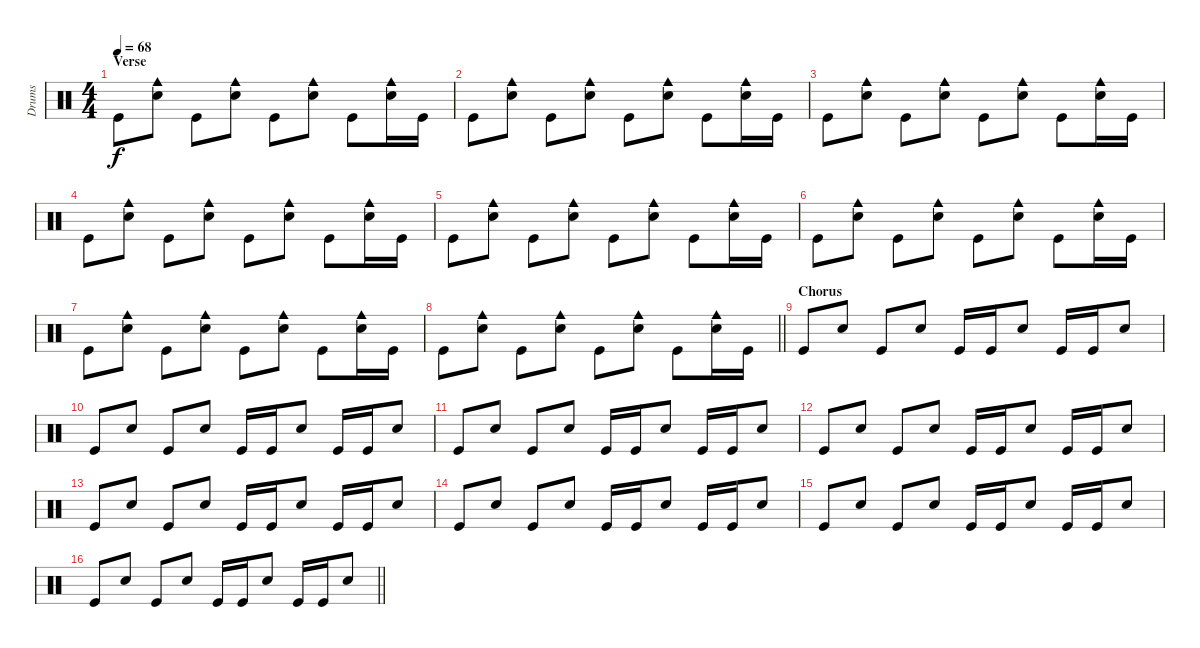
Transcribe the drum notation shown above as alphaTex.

\track ("Drums" "Drums") {instrument percussion}
\staff {score}
\articulation defaults
\ts (4 4)
\section ("" "Verse")
\tempo 68
\clef neutral
\ks c "Kick (hit)".8{dy f}
("Cowbell medium (hit)" "Electric Snare (hit)").8 "Kick (hit)".8 ("Cowbell medium (hit)" "Electric Snare (hit)").8 "Kick (hit)".8 ("Cowbell medium (hit)" "Electric Snare (hit)").8 "Kick (hit)".8 ("Cowbell medium (hit)" "Electric Snare (hit)").16 "Kick (hit)".16 |
"Kick (hit)".8 ("Cowbell medium (hit)" "Electric Snare (hit)").8 "Kick (hit)".8 ("Cowbell medium (hit)" "Electric Snare (hit)").8 "Kick (hit)".8 ("Cowbell medium (hit)" "Electric Snare (hit)").8 "Kick (hit)".8 ("Cowbell medium (hit)" "Electric Snare (hit)").16 "Kick (hit)".16 |
"Kick (hit)".8 ("Cowbell medium (hit)" "Electric Snare (hit)").8 "Kick (hit)".8 ("Cowbell medium (hit)" "Electric Snare (hit)").8 "Kick (hit)".8 ("Cowbell medium (hit)" "Electric Snare (hit)").8 "Kick (hit)".8 ("Cowbell medium (hit)" "Electric Snare (hit)").16 "Kick (hit)".16 |
"Kick (hit)".8 ("Cowbell medium (hit)" "Electric Snare (hit)").8 "Kick (hit)".8 ("Cowbell medium (hit)" "Electric Snare (hit)").8 "Kick (hit)".8 ("Cowbell medium (hit)" "Electric Snare (hit)").8 "Kick (hit)".8 ("Cowbell medium (hit)" "Electric Snare (hit)").16 "Kick (hit)".16 |
"Kick (hit)".8 ("Cowbell medium (hit)" "Electric Snare (hit)").8 "Kick (hit)".8 ("Cowbell medium (hit)" "Electric Snare (hit)").8 "Kick (hit)".8 ("Cowbell medium (hit)" "Electric Snare (hit)").8 "Kick (hit)".8 ("Cowbell medium (hit)" "Electric Snare (hit)").16 "Kick (hit)".16 |
"Kick (hit)".8 ("Cowbell medium (hit)" "Electric Snare (hit)").8 "Kick (hit)".8 ("Cowbell medium (hit)" "Electric Snare (hit)").8 "Kick (hit)".8 ("Cowbell medium (hit)" "Electric Snare (hit)").8 "Kick (hit)".8 ("Cowbell medium (hit)" "Electric Snare (hit)").16 "Kick (hit)".16 |
"Kick (hit)".8 ("Cowbell medium (hit)" "Electric Snare (hit)").8 "Kick (hit)".8 ("Cowbell medium (hit)" "Electric Snare (hit)").8 "Kick (hit)".8 ("Cowbell medium (hit)" "Electric Snare (hit)").8 "Kick (hit)".8 ("Cowbell medium (hit)" "Electric Snare (hit)").16 "Kick (hit)".16 |
\barLineRight lightlight "Kick (hit)".8
("Cowbell medium (hit)" "Electric Snare (hit)").8 "Kick (hit)".8 ("Cowbell medium (hit)" "Electric Snare (hit)").8 "Kick (hit)".8 ("Cowbell medium (hit)" "Electric Snare (hit)").8 "Kick (hit)".8 ("Cowbell medium (hit)" "Electric Snare (hit)").16 "Kick (hit)".16 |
\section ("" "Chorus")
"Kick (hit)".8 "Snare (hit) 2".8 "Kick (hit)".8 "Snare (hit) 2".8 "Kick (hit)".16 "Kick (hit)".16 "Snare (hit) 2".8 "Kick (hit)".16 "Kick (hit)".16 "Snare (hit) 2".8 |
"Kick (hit)".8 "Snare (hit) 2".8 "Kick (hit)".8 "Snare (hit) 2".8 "Kick (hit)".16 "Kick (hit)".16 "Snare (hit) 2".8 "Kick (hit)".16 "Kick (hit)".16 "Snare (hit) 2".8 |
"Kick (hit)".8 "Snare (hit) 2".8 "Kick (hit)".8 "Snare (hit) 2".8 "Kick (hit)".16 "Kick (hit)".16 "Snare (hit) 2".8 "Kick (hit)".16 "Kick (hit)".16 "Snare (hit) 2".8 |
"Kick (hit)".8 "Snare (hit) 2".8 "Kick (hit)".8 "Snare (hit) 2".8 "Kick (hit)".16 "Kick (hit)".16 "Snare (hit) 2".8 "Kick (hit)".16 "Kick (hit)".16 "Snare (hit) 2".8 |
"Kick (hit)".8 "Snare (hit) 2".8 "Kick (hit)".8 "Snare (hit) 2".8 "Kick (hit)".16 "Kick (hit)".16 "Snare (hit) 2".8 "Kick (hit)".16 "Kick (hit)".16 "Snare (hit) 2".8 |
"Kick (hit)".8 "Snare (hit) 2".8 "Kick (hit)".8 "Snare (hit) 2".8 "Kick (hit)".16 "Kick (hit)".16 "Snare (hit) 2".8 "Kick (hit)".16 "Kick (hit)".16 "Snare (hit) 2".8 |
"Kick (hit)".8 "Snare (hit) 2".8 "Kick (hit)".8 "Snare (hit) 2".8 "Kick (hit)".16 "Kick (hit)".16 "Snare (hit) 2".8 "Kick (hit)".16 "Kick (hit)".16 "Snare (hit) 2".8 |
\barLineRight lightlight "Kick (hit)".8 "Snare (hit) 2".8 "Kick (hit)".8 "Snare (hit) 2".8 "Kick (hit)".16 "Kick (hit)".16 "Snare (hit) 2".8 "Kick (hit)".16 "Kick (hit)".16 "Snare (hit) 2".8
